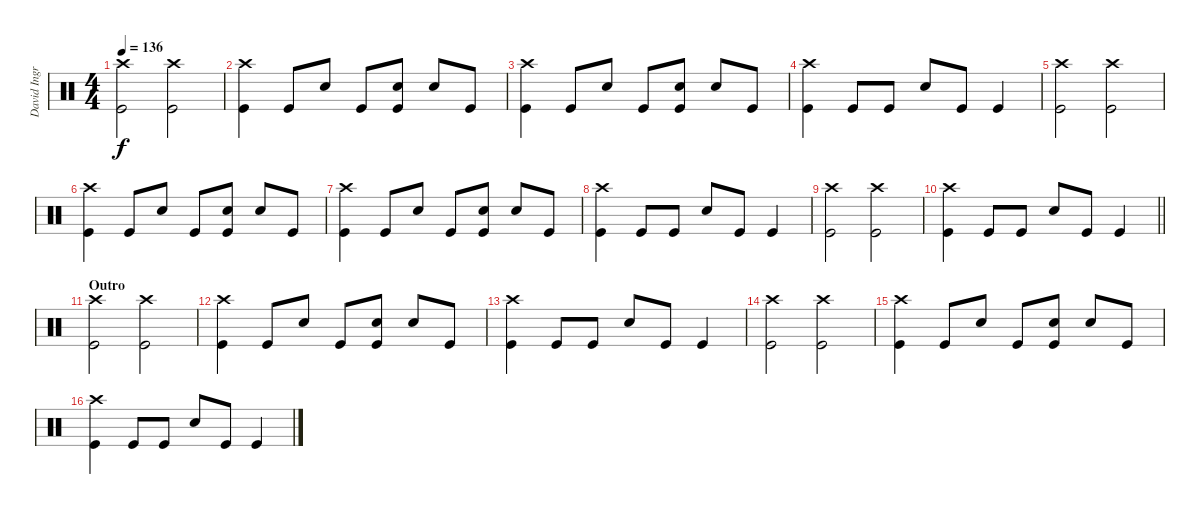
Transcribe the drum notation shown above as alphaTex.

\track ("David Ingraham" "David Ingr") {instrument percussion}
\staff {score}
\articulation defaults
\ts (4 4)
\tempo 136
\clef neutral
\ks c
("Crash high (hit)" "Kick (hit)").2{dy f} ("Crash high (hit)" "Kick (hit)").2 |
("Crash high (hit)" "Kick (hit)").4 "Kick (hit)".8 "Snare (hit) 2".8 "Kick (hit)".8 ("Snare (hit) 2" "Kick (hit)").8 "Snare (hit) 2".8 "Kick (hit)".8 |
("Crash high (hit)" "Kick (hit)").4 "Kick (hit)".8 "Snare (hit) 2".8 "Kick (hit)".8 ("Snare (hit) 2" "Kick (hit)").8 "Snare (hit) 2".8 "Kick (hit)".8 |
("Crash high (hit)" "Kick (hit)").4 "Kick (hit)".8 "Kick (hit)".8 "Snare (hit) 2".8 "Kick (hit)".8 "Kick (hit)".4 |
("Crash high (hit)" "Kick (hit)").2 ("Crash high (hit)" "Kick (hit)").2 |
("Crash high (hit)" "Kick (hit)").4 "Kick (hit)".8 "Snare (hit) 2".8 "Kick (hit)".8 ("Snare (hit) 2" "Kick (hit)").8 "Snare (hit) 2".8 "Kick (hit)".8 |
("Crash high (hit)" "Kick (hit)").4 "Kick (hit)".8 "Snare (hit) 2".8 "Kick (hit)".8 ("Snare (hit) 2" "Kick (hit)").8 "Snare (hit) 2".8 "Kick (hit)".8 |
("Crash high (hit)" "Kick (hit)").4 "Kick (hit)".8 "Kick (hit)".8 "Snare (hit) 2".8 "Kick (hit)".8 "Kick (hit)".4 |
("Crash high (hit)" "Kick (hit)").2 ("Crash high (hit)" "Kick (hit)").2 |
\barLineRight lightlight
("Crash high (hit)" "Kick (hit)").4 "Kick (hit)".8 "Kick (hit)".8 "Snare (hit) 2".8 "Kick (hit)".8 "Kick (hit)".4 |
\section ("" "Outro")
("Crash high (hit)" "Kick (hit)").2 ("Crash high (hit)" "Kick (hit)").2 |
("Crash high (hit)" "Kick (hit)").4 "Kick (hit)".8 "Snare (hit) 2".8 "Kick (hit)".8 ("Snare (hit) 2" "Kick (hit)").8 "Snare (hit) 2".8 "Kick (hit)".8 |
("Crash high (hit)" "Kick (hit)").4 "Kick (hit)".8 "Kick (hit)".8 "Snare (hit) 2".8 "Kick (hit)".8 "Kick (hit)".4 |
("Crash high (hit)" "Kick (hit)").2 ("Crash high (hit)" "Kick (hit)").2 |
("Crash high (hit)" "Kick (hit)").4 "Kick (hit)".8 "Snare (hit) 2".8 "Kick (hit)".8 ("Snare (hit) 2" "Kick (hit)").8 "Snare (hit) 2".8 "Kick (hit)".8 |
("Crash high (hit)" "Kick (hit)").4 "Kick (hit)".8 "Kick (hit)".8 "Snare (hit) 2".8 "Kick (hit)".8 "Kick (hit)".4
